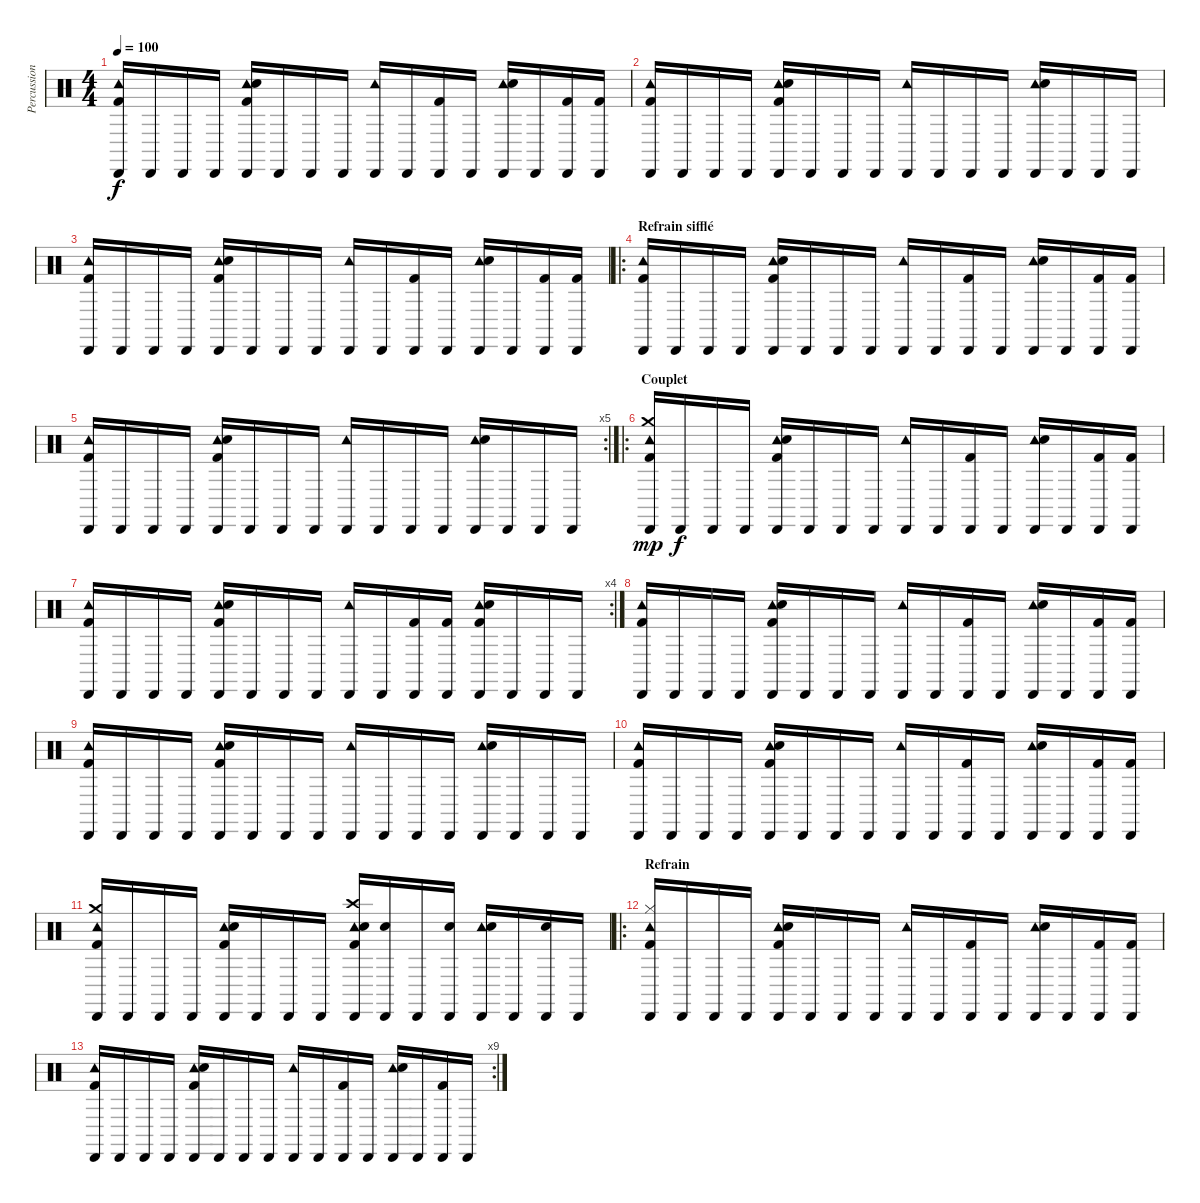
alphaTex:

\track ("Percussions" "Percussion") {instrument percussion}
\staff {score}
\articulation defaults
\ts (4 4)
\tempo 100
\clef neutral
\ks c
("Cabasa (hit)" "Tambourine (hit)" "Kick (hit) 2").16{dy f} "Cabasa (hit)".16 "Cabasa (hit)".16 "Cabasa (hit)".16 ("Cabasa (hit)" "Tambourine (hit)" "Hand Clap (hit)" "Kick (hit) 2").16 "Cabasa (hit)".16 "Cabasa (hit)".16 "Cabasa (hit)".16 ("Cabasa (hit)" "Tambourine (hit)").16 "Cabasa (hit)".16 ("Cabasa (hit)" "Kick (hit) 2").16 "Cabasa (hit)".16 ("Cabasa (hit)" "Tambourine (hit)" "Hand Clap (hit)").16 "Cabasa (hit)".16 ("Cabasa (hit)" "Kick (hit) 2").16 ("Cabasa (hit)" "Kick (hit) 2").16 |
("Cabasa (hit)" "Tambourine (hit)" "Kick (hit) 2").16 "Cabasa (hit)".16 "Cabasa (hit)".16 "Cabasa (hit)".16 ("Cabasa (hit)" "Tambourine (hit)" "Hand Clap (hit)" "Kick (hit) 2").16 "Cabasa (hit)".16 "Cabasa (hit)".16 "Cabasa (hit)".16 ("Cabasa (hit)" "Tambourine (hit)").16 "Cabasa (hit)".16 "Cabasa (hit)".16 "Cabasa (hit)".16 ("Cabasa (hit)" "Tambourine (hit)" "Hand Clap (hit)").16 "Cabasa (hit)".16 "Cabasa (hit)".16 "Cabasa (hit)".16 |
("Cabasa (hit)" "Tambourine (hit)" "Kick (hit) 2").16 "Cabasa (hit)".16 "Cabasa (hit)".16 "Cabasa (hit)".16 ("Cabasa (hit)" "Tambourine (hit)" "Hand Clap (hit)" "Kick (hit) 2").16 "Cabasa (hit)".16 "Cabasa (hit)".16 "Cabasa (hit)".16 ("Cabasa (hit)" "Tambourine (hit)").16 "Cabasa (hit)".16 ("Cabasa (hit)" "Kick (hit) 2").16 "Cabasa (hit)".16 ("Cabasa (hit)" "Tambourine (hit)" "Hand Clap (hit)").16 "Cabasa (hit)".16 ("Cabasa (hit)" "Kick (hit) 2").16 ("Cabasa (hit)" "Kick (hit) 2").16 |
\ro
\section ("" "Refrain sifflé")
("Cabasa (hit)" "Tambourine (hit)" "Kick (hit) 2").16 "Cabasa (hit)".16 "Cabasa (hit)".16 "Cabasa (hit)".16 ("Cabasa (hit)" "Tambourine (hit)" "Hand Clap (hit)" "Kick (hit) 2").16 "Cabasa (hit)".16 "Cabasa (hit)".16 "Cabasa (hit)".16 ("Cabasa (hit)" "Tambourine (hit)").16 "Cabasa (hit)".16 ("Cabasa (hit)" "Kick (hit) 2").16 "Cabasa (hit)".16 ("Cabasa (hit)" "Tambourine (hit)" "Hand Clap (hit)").16 "Cabasa (hit)".16 ("Cabasa (hit)" "Kick (hit) 2").16 ("Cabasa (hit)" "Kick (hit) 2").16 |
\rc 5
("Cabasa (hit)" "Tambourine (hit)" "Kick (hit) 2").16 "Cabasa (hit)".16 "Cabasa (hit)".16 "Cabasa (hit)".16 ("Cabasa (hit)" "Tambourine (hit)" "Hand Clap (hit)" "Kick (hit) 2").16 "Cabasa (hit)".16 "Cabasa (hit)".16 "Cabasa (hit)".16 ("Cabasa (hit)" "Tambourine (hit)").16 "Cabasa (hit)".16 "Cabasa (hit)".16 "Cabasa (hit)".16 ("Cabasa (hit)" "Tambourine (hit)" "Hand Clap (hit)").16 "Cabasa (hit)".16 "Cabasa (hit)".16 "Cabasa (hit)".16 |
\ro
\section ("" "Couplet")
("Cabasa (hit)" "Tambourine (hit)" "Crash medium (hit)" "Kick (hit) 2").16{dy mp} "Cabasa (hit)".16{dy f} "Cabasa (hit)".16 "Cabasa (hit)".16 ("Cabasa (hit)" "Tambourine (hit)" "Hand Clap (hit)" "Kick (hit) 2").16 "Cabasa (hit)".16 "Cabasa (hit)".16 "Cabasa (hit)".16 ("Cabasa (hit)" "Tambourine (hit)").16 "Cabasa (hit)".16 ("Cabasa (hit)" "Kick (hit) 2").16 "Cabasa (hit)".16 ("Cabasa (hit)" "Tambourine (hit)" "Hand Clap (hit)").16 "Cabasa (hit)".16 ("Cabasa (hit)" "Kick (hit) 2").16 ("Cabasa (hit)" "Kick (hit) 2").16 |
\rc 4
("Cabasa (hit)" "Tambourine (hit)" "Kick (hit) 2").16 "Cabasa (hit)".16 "Cabasa (hit)".16 "Cabasa (hit)".16 ("Cabasa (hit)" "Tambourine (hit)" "Hand Clap (hit)" "Kick (hit) 2").16 "Cabasa (hit)".16 "Cabasa (hit)".16 "Cabasa (hit)".16 ("Cabasa (hit)" "Tambourine (hit)").16 "Cabasa (hit)".16 ("Cabasa (hit)" "Kick (hit) 2").16 ("Cabasa (hit)" "Kick (hit) 2").16 ("Cabasa (hit)" "Tambourine (hit)" "Hand Clap (hit)" "Kick (hit) 2").16 "Cabasa (hit)".16 "Cabasa (hit)".16 "Cabasa (hit)".16 |
("Cabasa (hit)" "Tambourine (hit)" "Kick (hit) 2").16 "Cabasa (hit)".16 "Cabasa (hit)".16 "Cabasa (hit)".16 ("Cabasa (hit)" "Tambourine (hit)" "Hand Clap (hit)" "Kick (hit) 2").16 "Cabasa (hit)".16 "Cabasa (hit)".16 "Cabasa (hit)".16 ("Cabasa (hit)" "Tambourine (hit)").16 "Cabasa (hit)".16 ("Cabasa (hit)" "Kick (hit) 2").16 "Cabasa (hit)".16 ("Cabasa (hit)" "Tambourine (hit)" "Hand Clap (hit)").16 "Cabasa (hit)".16 ("Cabasa (hit)" "Kick (hit) 2").16 ("Cabasa (hit)" "Kick (hit) 2").16 |
("Cabasa (hit)" "Tambourine (hit)" "Kick (hit) 2").16 "Cabasa (hit)".16 "Cabasa (hit)".16 "Cabasa (hit)".16 ("Cabasa (hit)" "Tambourine (hit)" "Hand Clap (hit)" "Kick (hit) 2").16 "Cabasa (hit)".16 "Cabasa (hit)".16 "Cabasa (hit)".16 ("Cabasa (hit)" "Tambourine (hit)").16 "Cabasa (hit)".16 "Cabasa (hit)".16 "Cabasa (hit)".16 ("Cabasa (hit)" "Tambourine (hit)" "Hand Clap (hit)").16 "Cabasa (hit)".16 "Cabasa (hit)".16 "Cabasa (hit)".16 |
("Cabasa (hit)" "Tambourine (hit)" "Kick (hit) 2").16 "Cabasa (hit)".16 "Cabasa (hit)".16 "Cabasa (hit)".16 ("Cabasa (hit)" "Tambourine (hit)" "Hand Clap (hit)" "Kick (hit) 2").16 "Cabasa (hit)".16 "Cabasa (hit)".16 "Cabasa (hit)".16 ("Cabasa (hit)" "Tambourine (hit)").16 "Cabasa (hit)".16 ("Cabasa (hit)" "Kick (hit) 2").16 "Cabasa (hit)".16 ("Cabasa (hit)" "Tambourine (hit)" "Hand Clap (hit)").16 "Cabasa (hit)".16 ("Cabasa (hit)" "Kick (hit) 2").16 ("Cabasa (hit)" "Kick (hit) 2").16 |
("Cabasa (hit)" "Tambourine (hit)" "Crash medium (hit)" "Kick (hit) 2").16 "Cabasa (hit)".16 "Cabasa (hit)".16 "Cabasa (hit)".16 ("Cabasa (hit)" "Tambourine (hit)" "Hand Clap (hit)" "Kick (hit) 2").16 "Cabasa (hit)".16 "Cabasa (hit)".16 "Cabasa (hit)".16 ("Cabasa (hit)" "Tambourine (hit)" "Snare (hit) 2" "Crash high (hit)" "Kick (hit) 2").16 ("Cabasa (hit)" "Snare (hit) 2").16 "Cabasa (hit)".16 ("Cabasa (hit)" "Snare (hit) 2").16 ("Cabasa (hit)" "Tambourine (hit)" "Snare (hit) 2").16 "Cabasa (hit)".16 ("Cabasa (hit)" "Snare (hit) 2").16 "Cabasa (hit)".16 |
\ro
\section ("" "Refrain")
("Cabasa (hit)" "Tambourine (hit)" "Hi-Hat (closed)" "Kick (hit) 2").16 "Cabasa (hit)".16 "Cabasa (hit)".16 "Cabasa (hit)".16 ("Cabasa (hit)" "Tambourine (hit)" "Hand Clap (hit)" "Kick (hit) 2").16 "Cabasa (hit)".16 "Cabasa (hit)".16 "Cabasa (hit)".16 ("Cabasa (hit)" "Tambourine (hit)").16 "Cabasa (hit)".16 ("Cabasa (hit)" "Kick (hit) 2").16 "Cabasa (hit)".16 ("Cabasa (hit)" "Tambourine (hit)" "Hand Clap (hit)").16 "Cabasa (hit)".16 ("Cabasa (hit)" "Kick (hit) 2").16 ("Cabasa (hit)" "Kick (hit) 2").16 |
\rc 9
("Cabasa (hit)" "Tambourine (hit)" "Kick (hit) 2").16 "Cabasa (hit)".16 "Cabasa (hit)".16 "Cabasa (hit)".16 ("Cabasa (hit)" "Tambourine (hit)" "Hand Clap (hit)" "Kick (hit) 2").16 "Cabasa (hit)".16 "Cabasa (hit)".16 "Cabasa (hit)".16 ("Cabasa (hit)" "Tambourine (hit)").16 "Cabasa (hit)".16 ("Cabasa (hit)" "Kick (hit) 2").16 "Cabasa (hit)".16 ("Cabasa (hit)" "Tambourine (hit)" "Hand Clap (hit)").16 "Cabasa (hit)".16 ("Cabasa (hit)" "Kick (hit) 2").16 "Cabasa (hit)".16
